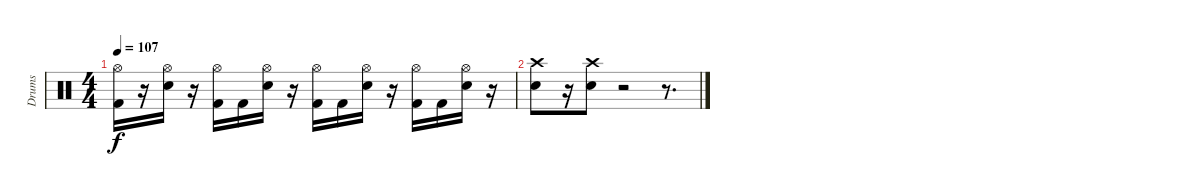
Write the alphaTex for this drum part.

\track ("Drums" "Drums") {instrument percussion}
\staff {score}
\articulation defaults
\ts (4 4)
\tempo 107
\clef neutral
\ks c
("Hi-Hat (open)" "Kick (hit) 2").16{dy f} r.16 ("Hi-Hat (open)" "Electric Snare (hit)").16 r.16 ("Hi-Hat (open)" "Kick (hit) 2").16 "Kick (hit) 2".16 ("Hi-Hat (open)" "Electric Snare (hit)").16 r.16 ("Hi-Hat (open)" "Kick (hit) 2").16 "Kick (hit) 2".16 ("Hi-Hat (open)" "Electric Snare (hit)").16 r.16 ("Hi-Hat (open)" "Kick (hit) 2").16 "Kick (hit) 2".16 ("Hi-Hat (open)" "Electric Snare (hit)").16 r.16 |
("Crash high (hit)" "Electric Snare (hit)").8 r.16 ("Crash high (hit)" "Electric Snare (hit)").8 r.2 r.8{d}
